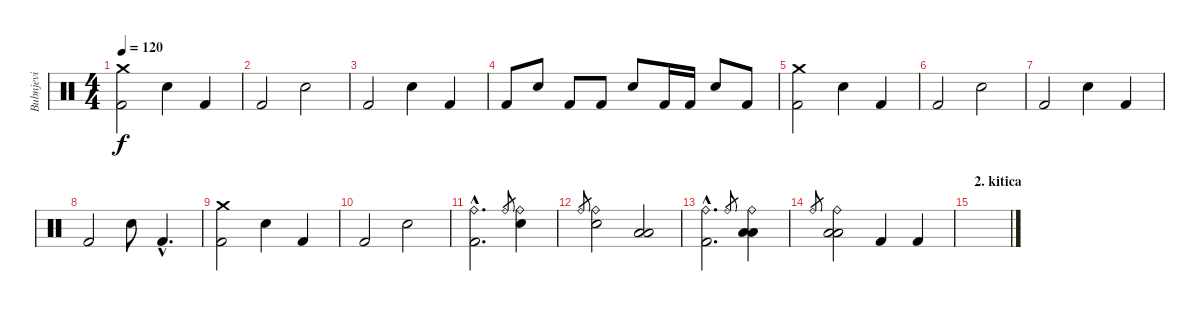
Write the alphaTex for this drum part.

\track ("Bubnjevi" "Bubnjevi") {instrument percussion}
\staff {score}
\articulation defaults
\ts (4 4)
\tempo 120
\clef neutral
\ks c
("Crash medium (hit)" "Kick (hit) 2").2{dy f} "Snare (hit) 2".4 "Kick (hit) 2".4 |
"Kick (hit) 2".2 "Snare (hit) 2".2 |
"Kick (hit) 2".2 "Snare (hit) 2".4 "Kick (hit) 2".4 |
"Kick (hit) 2".8 "Snare (hit) 2".8 "Kick (hit) 2".8 "Kick (hit) 2".8 "Snare (hit) 2".8 "Kick (hit) 2".16 "Kick (hit) 2".16 "Snare (hit) 2".8 "Kick (hit) 2".8 |
("Crash medium (hit)" "Kick (hit) 2").2 "Snare (hit) 2".4 "Kick (hit) 2".4 |
"Kick (hit) 2".2 "Snare (hit) 2".2 |
"Kick (hit) 2".2 "Snare (hit) 2".4 "Kick (hit) 2".4 |
"Kick (hit) 2".2 "Snare (hit) 2".8 "Kick (hit) 2"{hac}.4{d} |
("Crash medium (hit)" "Kick (hit) 2").2 "Snare (hit) 2".4 "Kick (hit) 2".4 |
"Kick (hit) 2".2 "Snare (hit) 2".2 |
("Ride (bell)"{hac} "Kick (hit) 2"{hac}).2{d} "Ride (bell)".8{gr} ("Ride (bell)" "Snare (hit) 2").4 |
"Ride (bell)".8{gr} ("Ride (bell)" "Snare (hit) 2").2 ("Low Tom (hit)" "Low Tom (hit)").2 |
("Ride (bell)"{hac} "Kick (hit) 2"{hac}).2{d} "Ride (bell)".8{gr} ("Low Tom (hit)" "Ride (bell)" "Low Tom (hit)").4 |
"Ride (bell)".8{gr} ("Low Tom (hit)" "Ride (bell)" "Low Tom (hit)").2 "Kick (hit) 2".4 "Kick (hit) 2".4 |
\section ("" "2. kitica")
